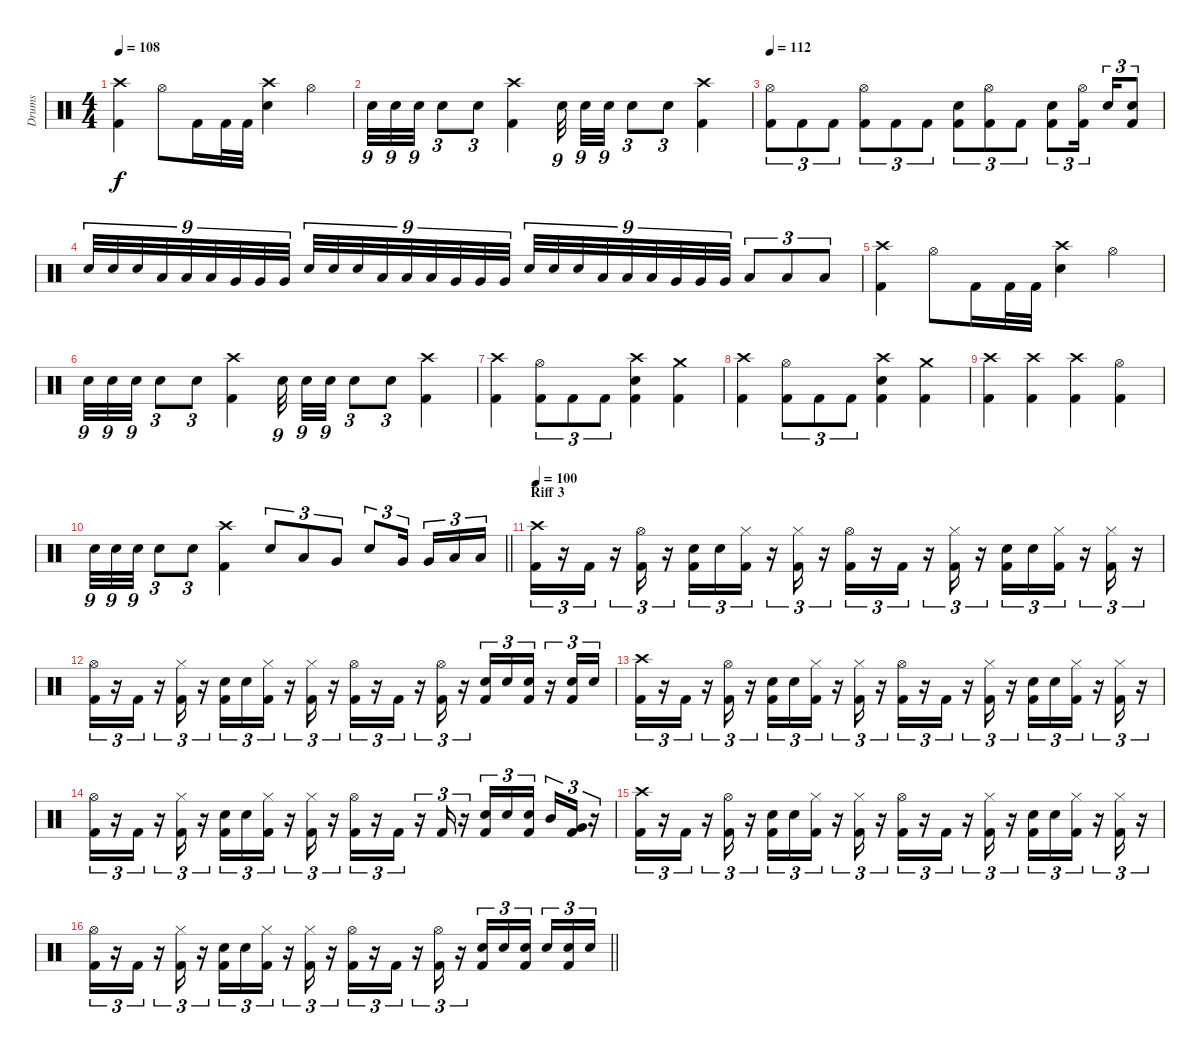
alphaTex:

\track ("Drums" "Drums") {instrument percussion}
\staff {score}
\articulation defaults
\ts (4 4)
\tempo 108
\clef neutral
\ks c
("Crash high (hit)" "Kick (hit) 2").4{dy f} "Hi-Hat (open)".8 "Kick (hit) 2".16 "Kick (hit) 2".32 "Kick (hit) 2".32 ("Crash high (hit)" "Electric Snare (hit)").4 "Hi-Hat (open)".4 |
"Electric Snare (hit)".32{tu (9 8)} "Electric Snare (hit)".32{tu (9 8)} "Electric Snare (hit)".32{tu (9 8)} "Electric Snare (hit)".8{tu (3 2)} "Electric Snare (hit)".8{tu (3 2)} ("Crash high (hit)" "Kick (hit) 2").4 "Electric Snare (hit)".32{tu (9 8)} "Electric Snare (hit)".32{tu (9 8)} "Electric Snare (hit)".32{tu (9 8)} "Electric Snare (hit)".8{tu (3 2)} "Electric Snare (hit)".8{tu (3 2)} ("Crash high (hit)" "Kick (hit) 2").4 |
\tempo 112
("Hi-Hat (open)" "Kick (hit) 2").8{tu (3 2)} "Kick (hit) 2".8{tu (3 2)} "Kick (hit) 2".8{tu (3 2)} ("Hi-Hat (open)" "Kick (hit) 2").8{tu (3 2)} "Kick (hit) 2".8{tu (3 2)} "Kick (hit) 2".8{tu (3 2)} ("Electric Snare (hit)" "Kick (hit) 2").8{tu (3 2)} ("Hi-Hat (open)" "Kick (hit) 2").8{tu (3 2)} "Kick (hit) 2".8{tu (3 2)} ("Electric Snare (hit)" "Kick (hit) 2").8{tu (3 2)} ("Hi-Hat (open)" "Kick (hit) 2").16{tu (3 2) beam splitsecondary} "Electric Snare (hit)".16{tu (3 2)} ("Electric Snare (hit)" "Kick (hit) 2").8{tu (3 2)} |
"Electric Snare (hit)".32{tu (9 8)} "Electric Snare (hit)".32{tu (9 8)} "Electric Snare (hit)".32{tu (9 8)} "Low Tom (hit)".32{tu (9 8)} "Low Tom (hit)".32{tu (9 8)} "Low Tom (hit)".32{tu (9 8)} "Very Low Tom (hit)".32{tu (9 8)} "Very Low Tom (hit)".32{tu (9 8)} "Very Low Tom (hit)".32{tu (9 8)} "Electric Snare (hit)".32{tu (9 8)} "Electric Snare (hit)".32{tu (9 8)} "Electric Snare (hit)".32{tu (9 8)} "Low Tom (hit)".32{tu (9 8)} "Low Tom (hit)".32{tu (9 8)} "Low Tom (hit)".32{tu (9 8)} "Very Low Tom (hit)".32{tu (9 8)} "Very Low Tom (hit)".32{tu (9 8)} "Very Low Tom (hit)".32{tu (9 8)} "Electric Snare (hit)".32{tu (9 8)} "Electric Snare (hit)".32{tu (9 8)} "Electric Snare (hit)".32{tu (9 8)} "Low Tom (hit)".32{tu (9 8)} "Low Tom (hit)".32{tu (9 8)} "Low Tom (hit)".32{tu (9 8)} "Very Low Tom (hit)".32{tu (9 8)} "Very Low Tom (hit)".32{tu (9 8)} "Very Low Tom (hit)".32{tu (9 8)} "Low Floor Tom (hit)".8{tu (3 2)} "Low Floor Tom (hit)".8{tu (3 2)} "Low Floor Tom (hit)".8{tu (3 2)} |
("Crash high (hit)" "Kick (hit) 2").4 "Hi-Hat (open)".8 "Kick (hit) 2".16 "Kick (hit) 2".32 "Kick (hit) 2".32 ("Crash high (hit)" "Electric Snare (hit)").4 "Hi-Hat (open)".4 |
"Electric Snare (hit)".32{tu (9 8)} "Electric Snare (hit)".32{tu (9 8)} "Electric Snare (hit)".32{tu (9 8)} "Electric Snare (hit)".8{tu (3 2)} "Electric Snare (hit)".8{tu (3 2)} ("Crash high (hit)" "Kick (hit) 2").4 "Electric Snare (hit)".32{tu (9 8)} "Electric Snare (hit)".32{tu (9 8)} "Electric Snare (hit)".32{tu (9 8)} "Electric Snare (hit)".8{tu (3 2)} "Electric Snare (hit)".8{tu (3 2)} ("Crash high (hit)" "Kick (hit) 2").4 |
("Crash high (hit)" "Kick (hit) 2").4 ("Hi-Hat (open)" "Kick (hit) 2").8{tu (3 2)} "Kick (hit) 2".8{tu (3 2)} "Kick (hit) 2".8{tu (3 2)} ("Crash high (hit)" "Electric Snare (hit)" "Kick (hit) 2").4 ("Crash medium (hit)" "Kick (hit) 2").4 |
("Crash high (hit)" "Kick (hit) 2").4 ("Hi-Hat (open)" "Kick (hit) 2").8{tu (3 2)} "Kick (hit) 2".8{tu (3 2)} "Kick (hit) 2".8{tu (3 2)} ("Crash high (hit)" "Electric Snare (hit)" "Kick (hit) 2").4 ("Crash medium (hit)" "Kick (hit) 2").4 |
("Crash high (hit)" "Kick (hit) 2").4 ("Crash high (hit)" "Kick (hit) 2").4 ("Crash high (hit)" "Kick (hit) 2").4 ("Hi-Hat (open)" "Kick (hit) 2").4 |
\barLineRight lightlight "Electric Snare (hit)".32{tu (9 8)} "Electric Snare (hit)".32{tu (9 8)} "Electric Snare (hit)".32{tu (9 8)} "Electric Snare (hit)".8{tu (3 2)} "Electric Snare (hit)".8{tu (3 2)}
("Crash high (hit)" "Kick (hit) 2").4 "Electric Snare (hit)".8{tu (3 2)} "Low Tom (hit)".8{tu (3 2)} "Very Low Tom (hit)".8{tu (3 2)} "Electric Snare (hit)".8{tu (3 2)} "Very Low Tom (hit)".16{tu (3 2) beam splitsecondary} "Very Low Tom (hit)".16{tu (3 2)} "Low Floor Tom (hit)".16{tu (3 2)} "Low Floor Tom (hit)".16{tu (3 2)} |
\section ("" "Riff 3")
\tempo 100
("Crash high (hit)" "Kick (hit) 2").16{tu (3 2)} r.16{tu (3 2)} "Kick (hit) 2".16{tu (3 2)} r.16{tu (3 2)} ("Hi-Hat (open)" "Kick (hit) 2").16{tu (3 2)} r.16{tu (3 2)} ("Electric Snare (hit)" "Kick (hit) 2").16{tu (3 2)} "Electric Snare (hit)".16{tu (3 2)} ("Hi-Hat (closed)" "Kick (hit) 2").16{tu (3 2)} r.16{tu (3 2)} ("Hi-Hat (closed)" "Kick (hit) 2").16{tu (3 2)} r.16{tu (3 2)} ("Hi-Hat (open)" "Kick (hit) 2").16{tu (3 2)} r.16{tu (3 2)} "Kick (hit) 2".16{tu (3 2)} r.16{tu (3 2)} ("Hi-Hat (closed)" "Kick (hit) 2").16{tu (3 2)} r.16{tu (3 2)} ("Electric Snare (hit)" "Kick (hit) 2").16{tu (3 2)} "Electric Snare (hit)".16{tu (3 2)} ("Hi-Hat (closed)" "Kick (hit) 2").16{tu (3 2)} r.16{tu (3 2)} ("Hi-Hat (closed)" "Kick (hit) 2").16{tu (3 2)} r.16{tu (3 2)} |
("Hi-Hat (open)" "Kick (hit) 2").16{tu (3 2)} r.16{tu (3 2)} "Kick (hit) 2".16{tu (3 2)} r.16{tu (3 2)} ("Hi-Hat (closed)" "Kick (hit) 2").16{tu (3 2)} r.16{tu (3 2)} ("Electric Snare (hit)" "Kick (hit) 2").16{tu (3 2)} "Electric Snare (hit)".16{tu (3 2)} ("Hi-Hat (closed)" "Kick (hit) 2").16{tu (3 2)} r.16{tu (3 2)} ("Hi-Hat (closed)" "Kick (hit) 2").16{tu (3 2)} r.16{tu (3 2)} ("Hi-Hat (open)" "Kick (hit) 2").16{tu (3 2)} r.16{tu (3 2)} "Kick (hit) 2".16{tu (3 2)} r.16{tu (3 2)} ("Hi-Hat (open)" "Kick (hit) 2").16{tu (3 2)} r.16{tu (3 2)} ("Electric Snare (hit)" "Kick (hit) 2").16{tu (3 2)} "Electric Snare (hit)".16{tu (3 2)} ("Electric Snare (hit)" "Kick (hit) 2").16{tu (3 2)} r.16{tu (3 2)} ("Electric Snare (hit)" "Kick (hit) 2").16{tu (3 2)} "Electric Snare (hit)".16{tu (3 2)} |
("Crash high (hit)" "Kick (hit) 2").16{tu (3 2)} r.16{tu (3 2)} "Kick (hit) 2".16{tu (3 2)} r.16{tu (3 2)} ("Hi-Hat (open)" "Kick (hit) 2").16{tu (3 2)} r.16{tu (3 2)} ("Electric Snare (hit)" "Kick (hit) 2").16{tu (3 2)} "Electric Snare (hit)".16{tu (3 2)} ("Hi-Hat (closed)" "Kick (hit) 2").16{tu (3 2)} r.16{tu (3 2)} ("Hi-Hat (closed)" "Kick (hit) 2").16{tu (3 2)} r.16{tu (3 2)} ("Hi-Hat (open)" "Kick (hit) 2").16{tu (3 2)} r.16{tu (3 2)} "Kick (hit) 2".16{tu (3 2)} r.16{tu (3 2)} ("Hi-Hat (closed)" "Kick (hit) 2").16{tu (3 2)} r.16{tu (3 2)} ("Electric Snare (hit)" "Kick (hit) 2").16{tu (3 2)} "Electric Snare (hit)".16{tu (3 2)} ("Hi-Hat (closed)" "Kick (hit) 2").16{tu (3 2)} r.16{tu (3 2)} ("Hi-Hat (closed)" "Kick (hit) 2").16{tu (3 2)} r.16{tu (3 2)} |
("Hi-Hat (open)" "Kick (hit) 2").16{tu (3 2)} r.16{tu (3 2)} "Kick (hit) 2".16{tu (3 2)} r.16{tu (3 2)} ("Hi-Hat (closed)" "Kick (hit) 2").16{tu (3 2)} r.16{tu (3 2)} ("Electric Snare (hit)" "Kick (hit) 2").16{tu (3 2)} "Electric Snare (hit)".16{tu (3 2)} ("Hi-Hat (closed)" "Kick (hit) 2").16{tu (3 2)} r.16{tu (3 2)} ("Hi-Hat (closed)" "Kick (hit) 2").16{tu (3 2)} r.16{tu (3 2)} ("Hi-Hat (open)" "Kick (hit) 2").16{tu (3 2)} r.16{tu (3 2)} "Kick (hit) 2".16{tu (3 2)} r.16{tu (3 2)} "Kick (hit) 2".16{tu (3 2)} r.16{tu (3 2)} ("Electric Snare (hit)" "Kick (hit) 2").16{tu (3 2)} "Electric Snare (hit)".16{tu (3 2)} ("Electric Snare (hit)" "Kick (hit) 2").16{tu (3 2) beam splitsecondary} "Mid Tom (hit)".16{tu (3 2)} ("Very Low Tom (hit)" "Kick (hit) 2").16{tu (3 2)} r.16{tu (3 2)} |
("Crash high (hit)" "Kick (hit) 2").16{tu (3 2)} r.16{tu (3 2)} "Kick (hit) 2".16{tu (3 2)} r.16{tu (3 2)} ("Hi-Hat (open)" "Kick (hit) 2").16{tu (3 2)} r.16{tu (3 2)} ("Electric Snare (hit)" "Kick (hit) 2").16{tu (3 2)} "Electric Snare (hit)".16{tu (3 2)} ("Hi-Hat (closed)" "Kick (hit) 2").16{tu (3 2)} r.16{tu (3 2)} ("Hi-Hat (closed)" "Kick (hit) 2").16{tu (3 2)} r.16{tu (3 2)} ("Hi-Hat (open)" "Kick (hit) 2").16{tu (3 2)} r.16{tu (3 2)} "Kick (hit) 2".16{tu (3 2)} r.16{tu (3 2)} ("Hi-Hat (closed)" "Kick (hit) 2").16{tu (3 2)} r.16{tu (3 2)} ("Electric Snare (hit)" "Kick (hit) 2").16{tu (3 2)} "Electric Snare (hit)".16{tu (3 2)} ("Hi-Hat (closed)" "Kick (hit) 2").16{tu (3 2)} r.16{tu (3 2)} ("Hi-Hat (closed)" "Kick (hit) 2").16{tu (3 2)} r.16{tu (3 2)} |
\barLineRight lightlight
("Hi-Hat (open)" "Kick (hit) 2").16{tu (3 2)} r.16{tu (3 2)} "Kick (hit) 2".16{tu (3 2)} r.16{tu (3 2)} ("Hi-Hat (closed)" "Kick (hit) 2").16{tu (3 2)} r.16{tu (3 2)} ("Electric Snare (hit)" "Kick (hit) 2").16{tu (3 2)} "Electric Snare (hit)".16{tu (3 2)} ("Hi-Hat (closed)" "Kick (hit) 2").16{tu (3 2)} r.16{tu (3 2)} ("Hi-Hat (closed)" "Kick (hit) 2").16{tu (3 2)} r.16{tu (3 2)} ("Hi-Hat (open)" "Kick (hit) 2").16{tu (3 2)} r.16{tu (3 2)} "Kick (hit) 2".16{tu (3 2)} r.16{tu (3 2)} ("Hi-Hat (open)" "Kick (hit) 2").16{tu (3 2)} r.16{tu (3 2)} ("Electric Snare (hit)" "Kick (hit) 2").16{tu (3 2)} "Electric Snare (hit)".16{tu (3 2)} ("Electric Snare (hit)" "Kick (hit) 2").16{tu (3 2) beam splitsecondary} "Electric Snare (hit)".16{tu (3 2)} ("Electric Snare (hit)" "Kick (hit) 2").16{tu (3 2)} "Electric Snare (hit)".16{tu (3 2)}
